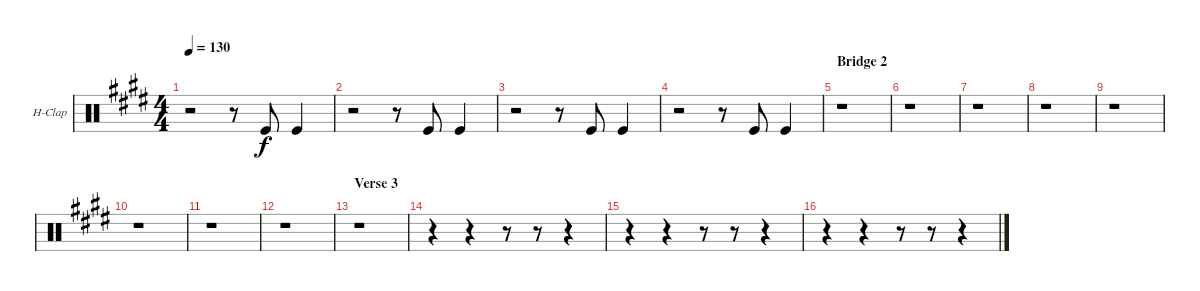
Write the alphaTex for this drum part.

\defaultSystemsLayout 4
\bracketExtendMode groupsimilarinstruments
\firstSystemTrackNameOrientation horizontal
\otherSystemsTrackNameOrientation horizontal
\chordDiagramsInScore
\track ("Hand Clap" "H-Clap") {instrument percussion}
\staff {score}
\articulation defaults
\ts (4 4)
\tempo 130
\clef neutral
\scale
0.25
\ks e
r.2{dy f} r.8 "Kick (hit)".8 "Kick (hit)".4 |
\scale
0.25 r.2 r.8 "Kick (hit)".8 "Kick (hit)".4 |
\scale
0.25 r.2 r.8 "Kick (hit)".8 "Kick (hit)".4 |
\scale
0.25 r.2 r.8 "Kick (hit)".8 "Kick (hit)".4 |
\section ("" "Bridge 2")
\scale
0.25 r.1 |
\scale
0.25 r.1 |
\scale
0.25 r.1 |
\scale
0.25 r.1 |
\scale
0.25 r.1 |
\scale
0.25 r.1 |
\scale
0.25 r.1 |
\scale
0.25 r.1 |
\section ("" "Verse 3")
\scale
0.129464 r.1 |
\scale
0.290179 r.4 r.4 r.8 r.8 r.4 |
\scale
0.290179 r.4 r.4 r.8 r.8 r.4 |
\scale
0.290179 r.4 r.4 r.8 r.8 r.4
